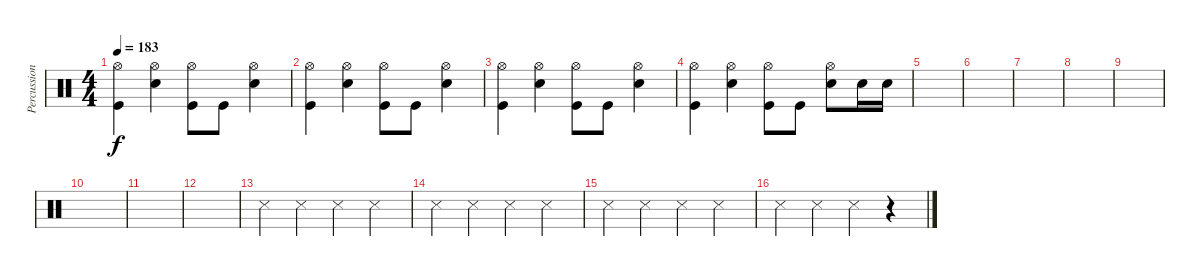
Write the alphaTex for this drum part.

\track ("Percussion" "Percussion") {instrument percussion}
\staff {score}
\articulation defaults
\ts (4 4)
\tempo 183
\clef neutral
\ks c
("Hi-Hat (open)" "Kick (hit)").4{dy f} ("Hi-Hat (open)" "Electric Snare (hit)").4 ("Hi-Hat (open)" "Kick (hit)").8 "Kick (hit)".8 ("Hi-Hat (open)" "Electric Snare (hit)").4 |
("Hi-Hat (open)" "Kick (hit)").4 ("Hi-Hat (open)" "Electric Snare (hit)").4 ("Hi-Hat (open)" "Kick (hit)").8 "Kick (hit)".8 ("Hi-Hat (open)" "Electric Snare (hit)").4 |
("Hi-Hat (open)" "Kick (hit)").4 ("Hi-Hat (open)" "Electric Snare (hit)").4 ("Hi-Hat (open)" "Kick (hit)").8 "Kick (hit)".8 ("Hi-Hat (open)" "Electric Snare (hit)").4 |
("Hi-Hat (open)" "Kick (hit)").4 ("Hi-Hat (open)" "Electric Snare (hit)").4 ("Hi-Hat (open)" "Kick (hit)").8 "Kick (hit)".8 ("Hi-Hat (open)" "Electric Snare (hit)").8 "Electric Snare (hit)".16 "Electric Snare (hit)".16 |
|
|
|
|
|
|
|
|
"Snare (side stick) 3".4 "Snare (side stick) 3".4 "Snare (side stick) 3".4 "Snare (side stick) 3".4 |
"Snare (side stick) 3".4 "Snare (side stick) 3".4 "Snare (side stick) 3".4 "Snare (side stick) 3".4 |
"Snare (side stick) 3".4 "Snare (side stick) 3".4 "Snare (side stick) 3".4 "Snare (side stick) 3".4 |
"Snare (side stick) 3".4 "Snare (side stick) 3".4 "Snare (side stick) 3".4 r.4
